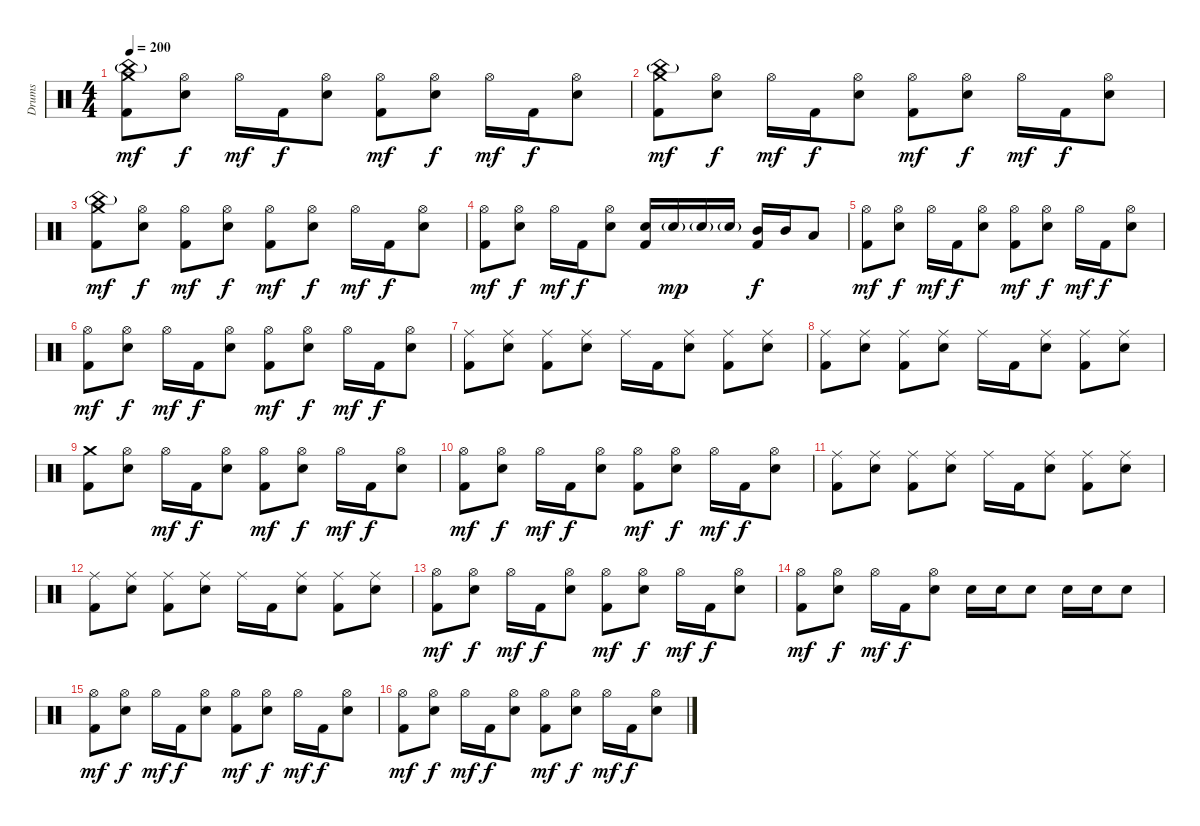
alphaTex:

\track ("Drums" "Drums") {instrument percussion}
\staff {score}
\articulation defaults
\ts (4 4)
\tempo 200
\clef neutral
\ks c
("China (hit)"{g} "Crash medium (hit)" "Kick (hit) 2").8{dy mf} ("Hi-Hat (open)" "Electric Snare (hit)").8{dy f} "Hi-Hat (open)".16{dy mf} "Kick (hit) 2".16{dy f} ("Hi-Hat (open)" "Electric Snare (hit)").8 ("Hi-Hat (open)" "Kick (hit) 2").8{dy mf} ("Hi-Hat (open)" "Electric Snare (hit)").8{dy f} "Hi-Hat (open)".16{dy mf} "Kick (hit) 2".16{dy f} ("Hi-Hat (open)" "Electric Snare (hit)").8 |
("China (hit)"{g} "Crash medium (hit)" "Kick (hit) 2").8{dy mf} ("Hi-Hat (open)" "Electric Snare (hit)").8{dy f} "Hi-Hat (open)".16{dy mf} "Kick (hit) 2".16{dy f} ("Hi-Hat (open)" "Electric Snare (hit)").8 ("Hi-Hat (open)" "Kick (hit) 2").8{dy mf} ("Hi-Hat (open)" "Electric Snare (hit)").8{dy f} "Hi-Hat (open)".16{dy mf} "Kick (hit) 2".16{dy f} ("Hi-Hat (open)" "Electric Snare (hit)").8 |
("China (hit)"{g} "Crash medium (hit)" "Kick (hit) 2").8{dy mf} ("Hi-Hat (open)" "Electric Snare (hit)").8{dy f} ("Hi-Hat (open)" "Kick (hit) 2").8{dy mf} ("Hi-Hat (open)" "Electric Snare (hit)").8{dy f} ("Hi-Hat (open)" "Kick (hit) 2").8{dy mf} ("Hi-Hat (open)" "Electric Snare (hit)").8{dy f} "Hi-Hat (open)".16{dy mf} "Kick (hit) 2".16{dy f} ("Hi-Hat (open)" "Electric Snare (hit)").8 |
("Hi-Hat (open)" "Kick (hit) 2").8{dy mf} ("Hi-Hat (open)" "Electric Snare (hit)").8{dy f} "Hi-Hat (open)".16{dy mf} "Kick (hit) 2".16{dy f} ("Hi-Hat (open)" "Electric Snare (hit)").8 ("Electric Snare (hit)" "Kick (hit) 2").16 "Electric Snare (hit)"{g}.16{dy mp} "Electric Snare (hit)"{g}.16 "Electric Snare (hit)"{g}.16 ("Mid Tom (hit)" "Kick (hit) 2").16{dy f} "Mid Tom (hit)".16 "Low Tom (hit)".8 |
("Hi-Hat (open)" "Kick (hit) 2").8{dy mf} ("Hi-Hat (open)" "Electric Snare (hit)").8{dy f} "Hi-Hat (open)".16{dy mf} "Kick (hit) 2".16{dy f} ("Hi-Hat (open)" "Electric Snare (hit)").8 ("Hi-Hat (open)" "Kick (hit) 2").8{dy mf} ("Hi-Hat (open)" "Electric Snare (hit)").8{dy f} "Hi-Hat (open)".16{dy mf} "Kick (hit) 2".16{dy f} ("Hi-Hat (open)" "Electric Snare (hit)").8 |
("Hi-Hat (open)" "Kick (hit) 2").8{dy mf} ("Hi-Hat (open)" "Electric Snare (hit)").8{dy f} "Hi-Hat (open)".16{dy mf} "Kick (hit) 2".16{dy f} ("Hi-Hat (open)" "Electric Snare (hit)").8 ("Hi-Hat (open)" "Kick (hit) 2").8{dy mf} ("Hi-Hat (open)" "Electric Snare (hit)").8{dy f} "Hi-Hat (open)".16{dy mf} "Kick (hit) 2".16{dy f} ("Hi-Hat (open)" "Electric Snare (hit)").8 |
("Ride (middle)" "Kick (hit) 2").8 ("Ride (middle)" "Electric Snare (hit)").8 ("Ride (middle)" "Kick (hit) 2").8 ("Ride (middle)" "Electric Snare (hit)").8 "Ride (middle)".16 "Kick (hit) 2".16 ("Ride (middle)" "Electric Snare (hit)").8 ("Ride (middle)" "Kick (hit) 2").8 ("Ride (middle)" "Electric Snare (hit)").8 |
("Ride (middle)" "Kick (hit) 2").8 ("Ride (middle)" "Electric Snare (hit)").8 ("Ride (middle)" "Kick (hit) 2").8 ("Ride (middle)" "Electric Snare (hit)").8 "Ride (middle)".16 "Kick (hit) 2".16 ("Ride (middle)" "Electric Snare (hit)").8 ("Ride (middle)" "Kick (hit) 2").8 ("Ride (middle)" "Electric Snare (hit)").8 |
("Crash medium (hit)" "Kick (hit) 2").8 ("Hi-Hat (open)" "Electric Snare (hit)").8 "Hi-Hat (open)".16{dy mf} "Kick (hit) 2".16{dy f} ("Hi-Hat (open)" "Electric Snare (hit)").8 ("Hi-Hat (open)" "Kick (hit) 2").8{dy mf} ("Hi-Hat (open)" "Electric Snare (hit)").8{dy f} "Hi-Hat (open)".16{dy mf} "Kick (hit) 2".16{dy f} ("Hi-Hat (open)" "Electric Snare (hit)").8 |
("Hi-Hat (open)" "Kick (hit) 2").8{dy mf} ("Hi-Hat (open)" "Electric Snare (hit)").8{dy f} "Hi-Hat (open)".16{dy mf} "Kick (hit) 2".16{dy f} ("Hi-Hat (open)" "Electric Snare (hit)").8 ("Hi-Hat (open)" "Kick (hit) 2").8{dy mf} ("Hi-Hat (open)" "Electric Snare (hit)").8{dy f} "Hi-Hat (open)".16{dy mf} "Kick (hit) 2".16{dy f} ("Hi-Hat (open)" "Electric Snare (hit)").8 |
("Ride (middle)" "Kick (hit) 2").8 ("Ride (middle)" "Electric Snare (hit)").8 ("Ride (middle)" "Kick (hit) 2").8 ("Ride (middle)" "Electric Snare (hit)").8 "Ride (middle)".16 "Kick (hit) 2".16 ("Ride (middle)" "Electric Snare (hit)").8 ("Ride (middle)" "Kick (hit) 2").8 ("Ride (middle)" "Electric Snare (hit)").8 |
("Ride (middle)" "Kick (hit) 2").8 ("Ride (middle)" "Electric Snare (hit)").8 ("Ride (middle)" "Kick (hit) 2").8 ("Ride (middle)" "Electric Snare (hit)").8 "Ride (middle)".16 "Kick (hit) 2".16 ("Ride (middle)" "Electric Snare (hit)").8 ("Ride (middle)" "Kick (hit) 2").8 ("Ride (middle)" "Electric Snare (hit)").8 |
("Hi-Hat (open)" "Kick (hit) 2").8{dy mf} ("Hi-Hat (open)" "Electric Snare (hit)").8{dy f} "Hi-Hat (open)".16{dy mf} "Kick (hit) 2".16{dy f} ("Hi-Hat (open)" "Electric Snare (hit)").8 ("Hi-Hat (open)" "Kick (hit) 2").8{dy mf} ("Hi-Hat (open)" "Electric Snare (hit)").8{dy f} "Hi-Hat (open)".16{dy mf} "Kick (hit) 2".16{dy f} ("Hi-Hat (open)" "Electric Snare (hit)").8 |
("Hi-Hat (open)" "Kick (hit) 2").8{dy mf} ("Hi-Hat (open)" "Electric Snare (hit)").8{dy f} "Hi-Hat (open)".16{dy mf} "Kick (hit) 2".16{dy f} ("Hi-Hat (open)" "Electric Snare (hit)").8 "Electric Snare (hit)".16 "Electric Snare (hit)".16 "Electric Snare (hit)".8 "Electric Snare (hit)".16 "Electric Snare (hit)".16 "Electric Snare (hit)".8 |
("Hi-Hat (open)" "Kick (hit) 2").8{dy mf} ("Hi-Hat (open)" "Electric Snare (hit)").8{dy f} "Hi-Hat (open)".16{dy mf} "Kick (hit) 2".16{dy f} ("Hi-Hat (open)" "Electric Snare (hit)").8 ("Hi-Hat (open)" "Kick (hit) 2").8{dy mf} ("Hi-Hat (open)" "Electric Snare (hit)").8{dy f} "Hi-Hat (open)".16{dy mf} "Kick (hit) 2".16{dy f} ("Hi-Hat (open)" "Electric Snare (hit)").8 |
("Hi-Hat (open)" "Kick (hit) 2").8{dy mf} ("Hi-Hat (open)" "Electric Snare (hit)").8{dy f} "Hi-Hat (open)".16{dy mf} "Kick (hit) 2".16{dy f} ("Hi-Hat (open)" "Electric Snare (hit)").8 ("Hi-Hat (open)" "Kick (hit) 2").8{dy mf} ("Hi-Hat (open)" "Electric Snare (hit)").8{dy f} "Hi-Hat (open)".16{dy mf} "Kick (hit) 2".16{dy f} ("Hi-Hat (open)" "Electric Snare (hit)").8
